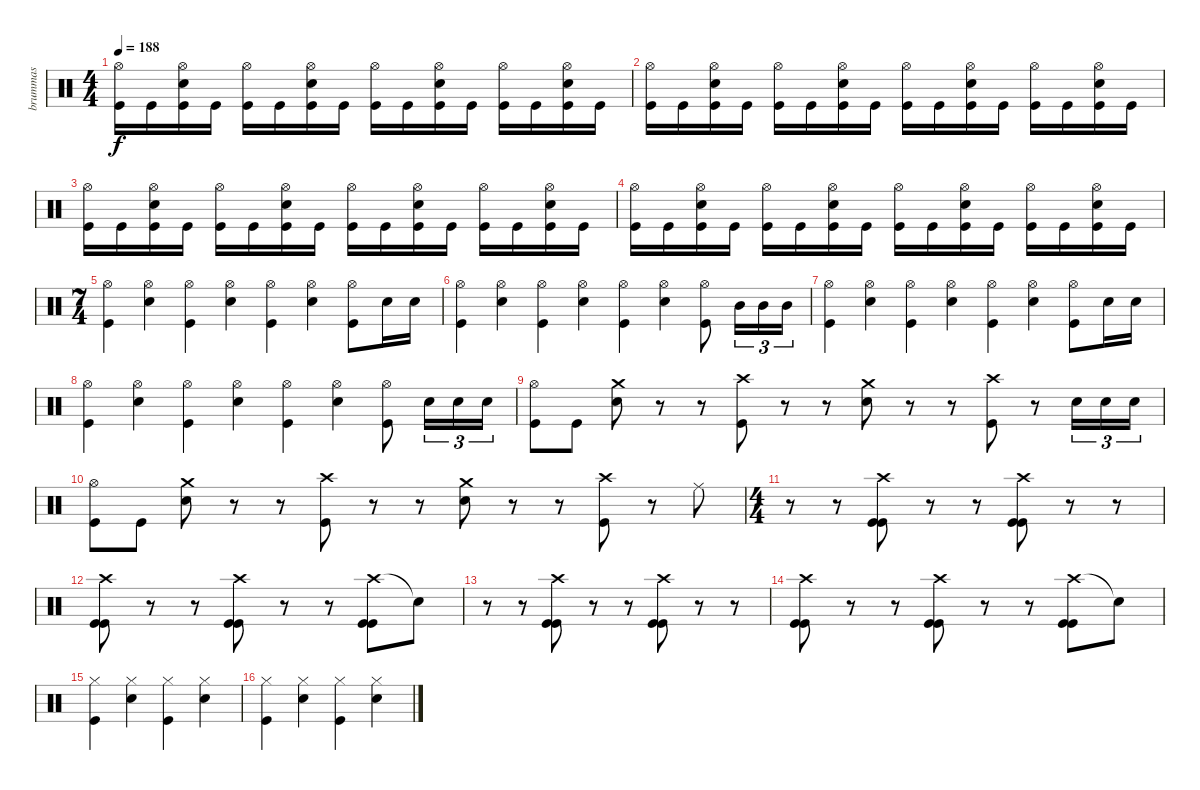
\track ("brummas" "brummas") {instrument percussion}
\staff {score}
\articulation defaults
\ts (4 4)
\tempo 188
\clef neutral
\ks c
("Hi-Hat (open)" "Kick (hit)").16{dy f} "Kick (hit)".16 ("Hi-Hat (open)" "Snare (hit) 2" "Kick (hit)").16 "Kick (hit)".16 ("Hi-Hat (open)" "Kick (hit)").16 "Kick (hit)".16 ("Hi-Hat (open)" "Snare (hit) 2" "Kick (hit)").16 "Kick (hit)".16 ("Hi-Hat (open)" "Kick (hit)").16 "Kick (hit)".16 ("Hi-Hat (open)" "Snare (hit) 2" "Kick (hit)").16 "Kick (hit)".16 ("Hi-Hat (open)" "Kick (hit)").16 "Kick (hit)".16 ("Hi-Hat (open)" "Snare (hit) 2" "Kick (hit)").16 "Kick (hit)".16 |
("Hi-Hat (open)" "Kick (hit)").16 "Kick (hit)".16 ("Hi-Hat (open)" "Snare (hit) 2" "Kick (hit)").16 "Kick (hit)".16 ("Hi-Hat (open)" "Kick (hit)").16 "Kick (hit)".16 ("Hi-Hat (open)" "Snare (hit) 2" "Kick (hit)").16 "Kick (hit)".16 ("Hi-Hat (open)" "Kick (hit)").16 "Kick (hit)".16 ("Hi-Hat (open)" "Snare (hit) 2" "Kick (hit)").16 "Kick (hit)".16 ("Hi-Hat (open)" "Kick (hit)").16 "Kick (hit)".16 ("Hi-Hat (open)" "Snare (hit) 2" "Kick (hit)").16 "Kick (hit)".16 |
("Hi-Hat (open)" "Kick (hit)").16 "Kick (hit)".16 ("Hi-Hat (open)" "Snare (hit) 2" "Kick (hit)").16 "Kick (hit)".16 ("Hi-Hat (open)" "Kick (hit)").16 "Kick (hit)".16 ("Hi-Hat (open)" "Snare (hit) 2" "Kick (hit)").16 "Kick (hit)".16 ("Hi-Hat (open)" "Kick (hit)").16 "Kick (hit)".16 ("Hi-Hat (open)" "Snare (hit) 2" "Kick (hit)").16 "Kick (hit)".16 ("Hi-Hat (open)" "Kick (hit)").16 "Kick (hit)".16 ("Hi-Hat (open)" "Snare (hit) 2" "Kick (hit)").16 "Kick (hit)".16 |
("Hi-Hat (open)" "Kick (hit)").16 "Kick (hit)".16 ("Hi-Hat (open)" "Snare (hit) 2" "Kick (hit)").16 "Kick (hit)".16 ("Hi-Hat (open)" "Kick (hit)").16 "Kick (hit)".16 ("Hi-Hat (open)" "Snare (hit) 2" "Kick (hit)").16 "Kick (hit)".16 ("Hi-Hat (open)" "Kick (hit)").16 "Kick (hit)".16 ("Hi-Hat (open)" "Snare (hit) 2" "Kick (hit)").16 "Kick (hit)".16 ("Hi-Hat (open)" "Kick (hit)").16 "Kick (hit)".16 ("Hi-Hat (open)" "Snare (hit) 2" "Kick (hit)").16 "Kick (hit)".16 |
\ts (7 4)
("Hi-Hat (open)" "Kick (hit)").4 ("Hi-Hat (open)" "Snare (hit) 2").4 ("Hi-Hat (open)" "Kick (hit)").4 ("Hi-Hat (open)" "Snare (hit) 2").4 ("Hi-Hat (open)" "Kick (hit)").4 ("Hi-Hat (open)" "Snare (hit) 2").4 ("Hi-Hat (open)" "Kick (hit)").8 "Snare (hit) 2".16 "Snare (hit) 2".16 |
("Hi-Hat (open)" "Kick (hit)").4 ("Hi-Hat (open)" "Snare (hit) 2").4 ("Hi-Hat (open)" "Kick (hit)").4 ("Hi-Hat (open)" "Snare (hit) 2").4 ("Hi-Hat (open)" "Kick (hit)").4 ("Hi-Hat (open)" "Snare (hit) 2").4 ("Hi-Hat (open)" "Kick (hit)").8 "Mid Tom (hit)".16{tu (3 2)} "Mid Tom (hit)".16{tu (3 2)} "Mid Tom (hit)".16{tu (3 2)} |
("Hi-Hat (open)" "Kick (hit)").4 ("Hi-Hat (open)" "Snare (hit) 2").4 ("Hi-Hat (open)" "Kick (hit)").4 ("Hi-Hat (open)" "Snare (hit) 2").4 ("Hi-Hat (open)" "Kick (hit)").4 ("Hi-Hat (open)" "Snare (hit) 2").4 ("Hi-Hat (open)" "Kick (hit)").8 "Snare (hit) 2".16 "Snare (hit) 2".16 |
("Hi-Hat (open)" "Kick (hit)").4 ("Hi-Hat (open)" "Snare (hit) 2").4 ("Hi-Hat (open)" "Kick (hit)").4 ("Hi-Hat (open)" "Snare (hit) 2").4 ("Hi-Hat (open)" "Kick (hit)").4 ("Hi-Hat (open)" "Snare (hit) 2").4 ("Hi-Hat (open)" "Kick (hit)").8 "Snare (hit) 2".16{tu (3 2)} "Snare (hit) 2".16{tu (3 2)} "Snare (hit) 2".16{tu (3 2)} |
("Hi-Hat (open)" "Kick (hit)").8 "Kick (hit)".8 ("Crash medium (hit)" "Snare (hit) 2").8 r.8 r.8 ("Crash high (hit)" "Kick (hit)").8 r.8 r.8 ("Crash medium (hit)" "Snare (hit) 2").8 r.8 r.8 ("Crash high (hit)" "Kick (hit)").8 r.8 "Snare (hit) 2".16{tu (3 2)} "Snare (hit) 2".16{tu (3 2)} "Snare (hit) 2".16{tu (3 2)} |
("Hi-Hat (open)" "Kick (hit)").8 "Kick (hit)".8 ("Crash medium (hit)" "Snare (hit) 2").8 r.8 r.8 ("Crash high (hit)" "Kick (hit)").8 r.8 r.8 ("Crash medium (hit)" "Snare (hit) 2").8 r.8 r.8 ("Crash high (hit)" "Kick (hit)").8 r.8 "Ride (middle)".8 |
\ts (4 4)
r.8 r.8 ("Crash high (hit)" "Kick (hit)" "Kick (hit)").8 r.8 r.8 ("Crash high (hit)" "Kick (hit)" "Kick (hit)").8 r.8 r.8 |
("Crash high (hit)" "Kick (hit)" "Kick (hit)").8 r.8 r.8 ("Crash high (hit)" "Kick (hit)" "Kick (hit)").8 r.8 r.8 ("Crash high (hit)" "Kick (hit)" "Kick (hit)").8 "Snare (hit)"{t}.8 |
r.8 r.8 ("Crash high (hit)" "Kick (hit)" "Kick (hit)").8 r.8 r.8 ("Crash high (hit)" "Kick (hit)" "Kick (hit)").8 r.8 r.8 |
("Crash high (hit)" "Kick (hit)" "Kick (hit)").8 r.8 r.8 ("Crash high (hit)" "Kick (hit)" "Kick (hit)").8 r.8 r.8 ("Crash high (hit)" "Kick (hit)" "Kick (hit)").8 "Snare (hit)"{t}.8 |
("Hi-Hat (closed)" "Kick (hit)").4 ("Hi-Hat (closed)" "Snare (hit) 2").4 ("Hi-Hat (closed)" "Kick (hit)").4 ("Hi-Hat (closed)" "Snare (hit) 2").4 |
("Hi-Hat (closed)" "Kick (hit)").4 ("Hi-Hat (closed)" "Snare (hit) 2").4 ("Hi-Hat (closed)" "Kick (hit)").4 ("Hi-Hat (closed)" "Snare (hit) 2").4
